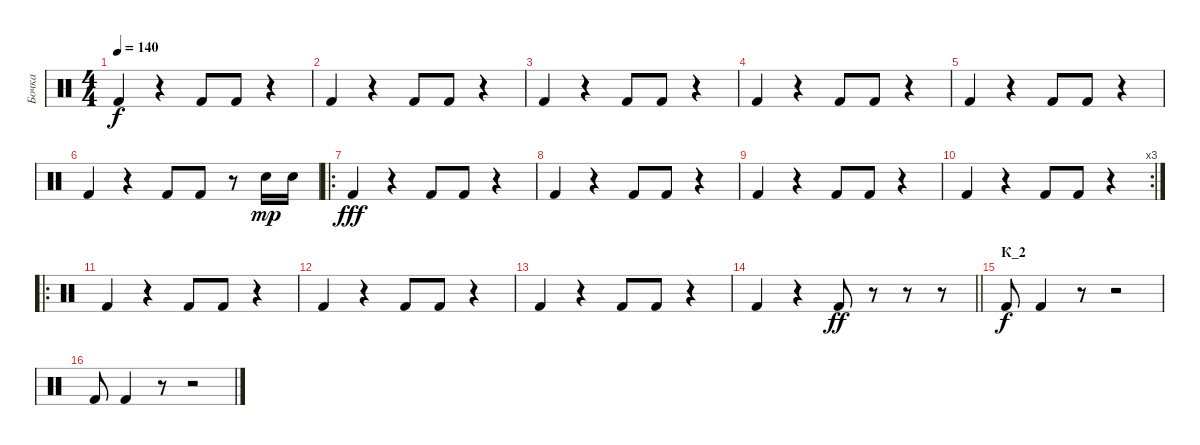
\track ("Бочка" "Бочка") {instrument percussion}
\staff {score}
\articulation defaults
\ts (4 4)
\tempo 140
\clef neutral
\ks c "Kick (hit) 2".4{dy f}
r.4 "Kick (hit) 2".8 "Kick (hit) 2".8 r.4 |
"Kick (hit) 2".4 r.4 "Kick (hit) 2".8 "Kick (hit) 2".8 r.4 |
"Kick (hit) 2".4 r.4 "Kick (hit) 2".8 "Kick (hit) 2".8 r.4 |
"Kick (hit) 2".4 r.4 "Kick (hit) 2".8 "Kick (hit) 2".8 r.4 |
"Kick (hit) 2".4 r.4 "Kick (hit) 2".8 "Kick (hit) 2".8 r.4 |
"Kick (hit) 2".4 r.4 "Kick (hit) 2".8 "Kick (hit) 2".8 r.8 "Electric Snare (hit)".16{dy mp} "Electric Snare (hit)".16 |
\ro "Kick (hit) 2".4{dy fff}
r.4 "Kick (hit) 2".8 "Kick (hit) 2".8 r.4 |
"Kick (hit) 2".4 r.4 "Kick (hit) 2".8 "Kick (hit) 2".8 r.4 |
"Kick (hit) 2".4 r.4 "Kick (hit) 2".8 "Kick (hit) 2".8 r.4 |
\rc 3 "Kick (hit) 2".4
r.4 "Kick (hit) 2".8 "Kick (hit) 2".8 r.4 |
\ro "Kick (hit) 2".4
r.4 "Kick (hit) 2".8 "Kick (hit) 2".8 r.4 |
"Kick (hit) 2".4 r.4 "Kick (hit) 2".8 "Kick (hit) 2".8 r.4 |
"Kick (hit) 2".4 r.4 "Kick (hit) 2".8 "Kick (hit) 2".8 r.4 |
\barLineRight lightlight "Kick (hit) 2".4
r.4 "Kick (hit) 2".8{dy ff} r.8 r.8 r.8 |
\section ("" "К_2")
"Kick (hit) 2".8{dy f} "Kick (hit) 2".4 r.8 r.2 |
"Kick (hit) 2".8 "Kick (hit) 2".4 r.8 r.2
